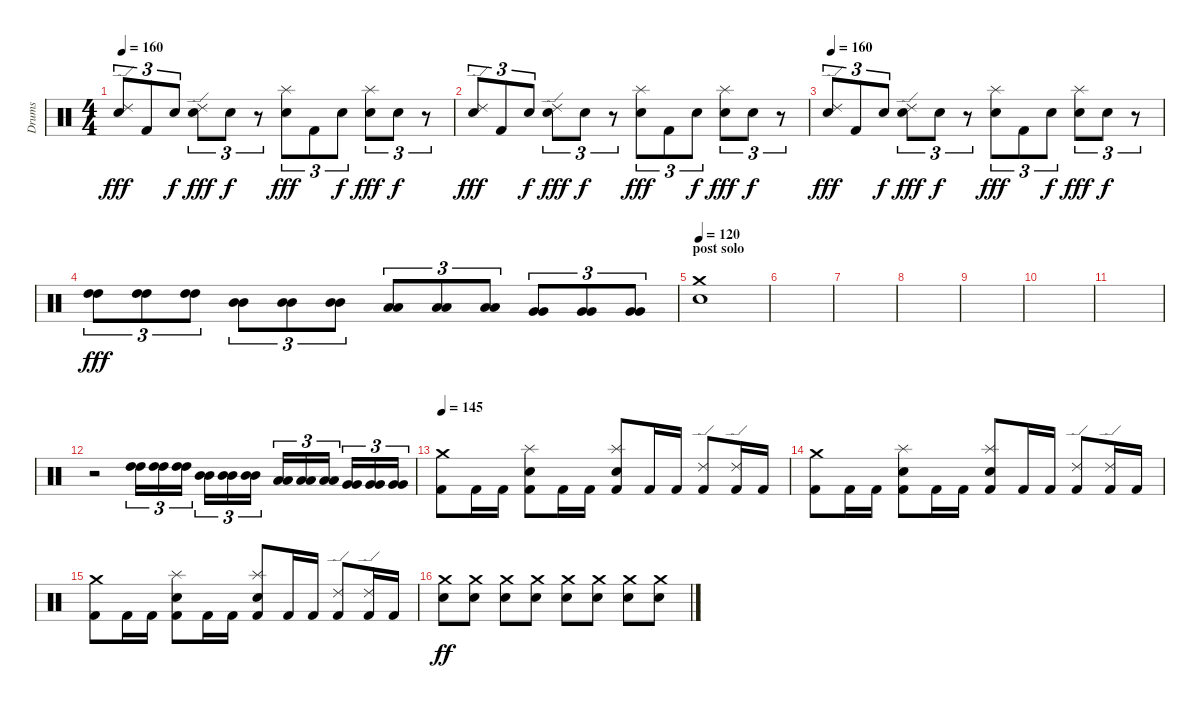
\track ("Drums" "Drums") {instrument percussion}
\staff {score}
\articulation defaults
\ts (4 4)
\tempo 160
\clef neutral
\ks c
("Ride (edge) 2" "Electric Snare (hit)").8{tu (3 2) dy fff} "Kick (hit) 2".8{tu (3 2)} "Electric Snare (hit)".8{tu (3 2) dy f} ("Ride (edge) 2" "Electric Snare (hit)").8{tu (3 2) dy fff} "Electric Snare (hit)".8{tu (3 2) dy f} r.8{tu (3 2)} ("Splash (hit)" "Snare (hit) 2").8{tu (3 2) dy fff} "Kick (hit) 2".8{tu (3 2)} "Snare (hit) 2".8{tu (3 2) dy f} ("Splash (hit)" "Snare (hit) 2").8{tu (3 2) dy fff} "Snare (hit) 2".8{tu (3 2) dy f} r.8{tu (3 2)} |
("Ride (edge) 2" "Electric Snare (hit)").8{tu (3 2) dy fff} "Kick (hit) 2".8{tu (3 2)} "Electric Snare (hit)".8{tu (3 2) dy f} ("Ride (edge) 2" "Electric Snare (hit)").8{tu (3 2) dy fff} "Electric Snare (hit)".8{tu (3 2) dy f} r.8{tu (3 2)} ("Splash (hit)" "Snare (hit) 2").8{tu (3 2) dy fff} "Kick (hit) 2".8{tu (3 2)} "Snare (hit) 2".8{tu (3 2) dy f} ("Splash (hit)" "Snare (hit) 2").8{tu (3 2) dy fff} "Snare (hit) 2".8{tu (3 2) dy f} r.8{tu (3 2)} |
\tempo 160
("Ride (edge) 2" "Electric Snare (hit)").8{tu (3 2) dy fff} "Kick (hit) 2".8{tu (3 2)} "Electric Snare (hit)".8{tu (3 2) dy f} ("Ride (edge) 2" "Electric Snare (hit)").8{tu (3 2) dy fff} "Electric Snare (hit)".8{tu (3 2) dy f} r.8{tu (3 2)} ("Splash (hit)" "Snare (hit) 2").8{tu (3 2) dy fff} "Kick (hit) 2".8{tu (3 2)} "Snare (hit) 2".8{tu (3 2) dy f} ("Splash (hit)" "Snare (hit) 2").8{tu (3 2) dy fff} "Snare (hit) 2".8{tu (3 2) dy f} r.8{tu (3 2)} |
("High Tom (hit)" "High Tom (hit)").8{tu (3 2) dy fff} ("High Tom (hit)" "High Tom (hit)").8{tu (3 2)} ("High Tom (hit)" "High Tom (hit)").8{tu (3 2)} ("Mid Tom (hit)" "Mid Tom (hit)").8{tu (3 2)} ("Mid Tom (hit)" "Mid Tom (hit)").8{tu (3 2)} ("Mid Tom (hit)" "Mid Tom (hit)").8{tu (3 2)} ("Low Tom (hit)" "Low Tom (hit)").8{tu (3 2)} ("Low Tom (hit)" "Low Tom (hit)").8{tu (3 2)} ("Low Tom (hit)" "Low Tom (hit)").8{tu (3 2)} ("Very Low Tom (hit)" "Very Low Tom (hit)").8{tu (3 2)} ("Very Low Tom (hit)" "Very Low Tom (hit)").8{tu (3 2)} ("Very Low Tom (hit)" "Very Low Tom (hit)").8{tu (3 2)} |
\section ("" "post solo")
\tempo 120
("Crash medium (hit)" "Electric Snare (hit)").1 |
|
|
|
|
|
|
r.2 ("High Tom (hit)" "High Tom (hit)").16{tu (3 2)} ("High Tom (hit)" "High Tom (hit)").16{tu (3 2)} ("High Tom (hit)" "High Tom (hit)").16{tu (3 2)} ("Mid Tom (hit)" "Mid Tom (hit)").16{tu (3 2)} ("Mid Tom (hit)" "Mid Tom (hit)").16{tu (3 2)} ("Mid Tom (hit)" "Mid Tom (hit)").16{tu (3 2)} ("Low Tom (hit)" "Low Tom (hit)").16{tu (3 2)} ("Low Tom (hit)" "Low Tom (hit)").16{tu (3 2)} ("Low Tom (hit)" "Low Tom (hit)").16{tu (3 2)} ("Very Low Tom (hit)" "Very Low Tom (hit)").16{tu (3 2)} ("Very Low Tom (hit)" "Very Low Tom (hit)").16{tu (3 2)} ("Very Low Tom (hit)" "Very Low Tom (hit)").16{tu (3 2)} |
\tempo 145
("Crash medium (hit)" "Kick (hit) 2").8 "Kick (hit) 2".16 "Kick (hit) 2".16 ("Electric Snare (hit)" "Kick (hit) 2" "Splash (hit)").8{balance 0} "Kick (hit) 2".16{balance 8} "Kick (hit) 2".16 ("Snare (hit) 2" "Kick (hit) 2" "Splash (hit)").8{balance 16} "Kick (hit) 2".16{balance 8} "Kick (hit) 2".16 ("Ride (edge) 2" "Kick (hit) 2").8 ("Ride (edge) 2" "Kick (hit) 2").16 "Kick (hit) 2".16 |
("Crash medium (hit)" "Kick (hit) 2").8 "Kick (hit) 2".16 "Kick (hit) 2".16 ("Electric Snare (hit)" "Kick (hit) 2" "Splash (hit)").8{balance 0} "Kick (hit) 2".16{balance 8} "Kick (hit) 2".16 ("Snare (hit) 2" "Kick (hit) 2" "Splash (hit)").8{balance 16} "Kick (hit) 2".16{balance 8} "Kick (hit) 2".16 ("Ride (edge) 2" "Kick (hit) 2").8 ("Ride (edge) 2" "Kick (hit) 2").16 "Kick (hit) 2".16 |
("Crash medium (hit)" "Kick (hit) 2").8 "Kick (hit) 2".16 "Kick (hit) 2".16 ("Electric Snare (hit)" "Kick (hit) 2" "Splash (hit)").8{balance 0} "Kick (hit) 2".16{balance 8} "Kick (hit) 2".16 ("Snare (hit) 2" "Kick (hit) 2" "Splash (hit)").8{balance 16} "Kick (hit) 2".16{balance 8} "Kick (hit) 2".16 ("Ride (edge) 2" "Kick (hit) 2").8 ("Ride (edge) 2" "Kick (hit) 2").16 "Kick (hit) 2".16 |
("Crash medium (hit)" "Electric Snare (hit)").8{dy ff} ("Crash medium (hit)" "Electric Snare (hit)").8 ("Crash medium (hit)" "Electric Snare (hit)").8 ("Crash medium (hit)" "Electric Snare (hit)").8 ("Crash medium (hit)" "Electric Snare (hit)").8 ("Crash medium (hit)" "Electric Snare (hit)").8 ("Crash medium (hit)" "Electric Snare (hit)").8 ("Crash medium (hit)" "Electric Snare (hit)").8
